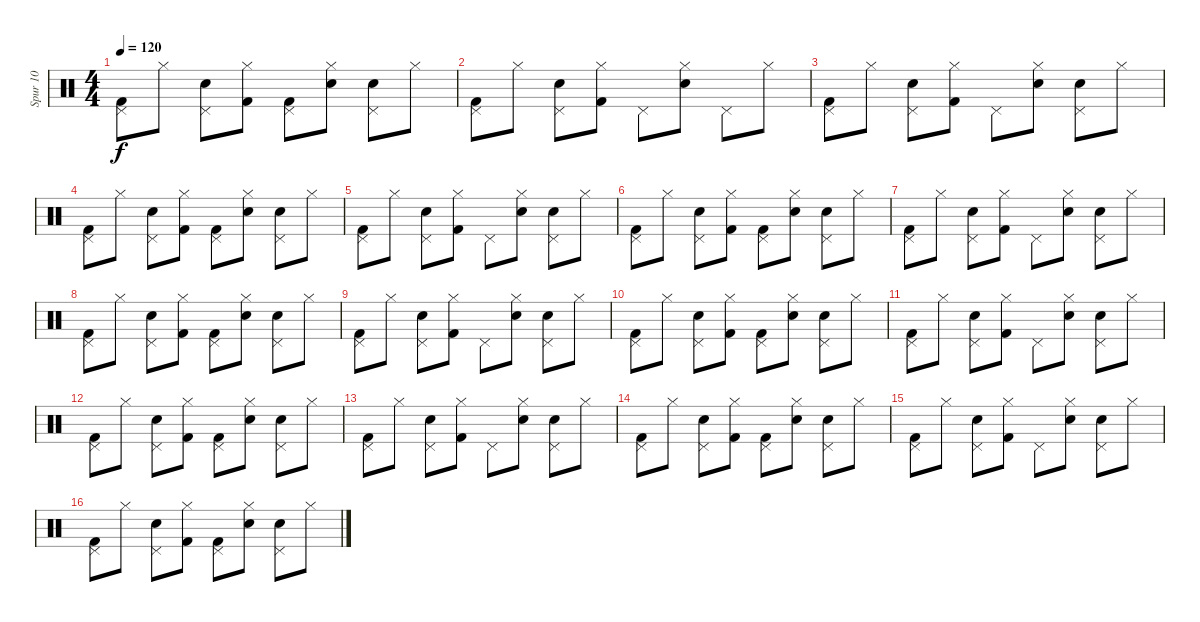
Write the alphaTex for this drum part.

\track ("Spur 10" "Spur 10") {instrument percussion}
\staff {score}
\articulation defaults
\ts (4 4)
\tempo 120
\clef neutral
\ks c
("Pedal Hi-Hat (hit)" "Kick (hit) 2").8{dy f} "Hi-Hat (closed)".8 ("Pedal Hi-Hat (hit)" "Snare (hit) 2").8 ("Hi-Hat (closed)" "Kick (hit) 2").8 ("Pedal Hi-Hat (hit)" "Kick (hit) 2").8 ("Hi-Hat (closed)" "Snare (hit) 2").8 ("Pedal Hi-Hat (hit)" "Snare (hit) 2").8 "Hi-Hat (closed)".8 |
("Pedal Hi-Hat (hit)" "Kick (hit) 2").8 "Hi-Hat (closed)".8 ("Pedal Hi-Hat (hit)" "Snare (hit) 2").8 ("Hi-Hat (closed)" "Kick (hit) 2").8 "Pedal Hi-Hat (hit)".8 ("Hi-Hat (closed)" "Snare (hit) 2").8 "Pedal Hi-Hat (hit)".8 "Hi-Hat (closed)".8 |
("Pedal Hi-Hat (hit)" "Kick (hit) 2").8 "Hi-Hat (closed)".8 ("Pedal Hi-Hat (hit)" "Snare (hit) 2").8 ("Hi-Hat (closed)" "Kick (hit) 2").8 "Pedal Hi-Hat (hit)".8 ("Hi-Hat (closed)" "Snare (hit) 2").8 ("Pedal Hi-Hat (hit)" "Snare (hit) 2").8 "Hi-Hat (closed)".8 |
("Pedal Hi-Hat (hit)" "Kick (hit) 2").8 "Hi-Hat (closed)".8 ("Pedal Hi-Hat (hit)" "Snare (hit) 2").8 ("Hi-Hat (closed)" "Kick (hit) 2").8 ("Pedal Hi-Hat (hit)" "Kick (hit) 2").8 ("Hi-Hat (closed)" "Snare (hit) 2").8 ("Pedal Hi-Hat (hit)" "Snare (hit) 2").8 "Hi-Hat (closed)".8 |
("Pedal Hi-Hat (hit)" "Kick (hit) 2").8 "Hi-Hat (closed)".8 ("Pedal Hi-Hat (hit)" "Snare (hit) 2").8 ("Hi-Hat (closed)" "Kick (hit) 2").8 "Pedal Hi-Hat (hit)".8 ("Hi-Hat (closed)" "Snare (hit) 2").8 ("Pedal Hi-Hat (hit)" "Snare (hit) 2").8 "Hi-Hat (closed)".8 |
("Pedal Hi-Hat (hit)" "Kick (hit) 2").8 "Hi-Hat (closed)".8 ("Pedal Hi-Hat (hit)" "Snare (hit) 2").8 ("Hi-Hat (closed)" "Kick (hit) 2").8 ("Pedal Hi-Hat (hit)" "Kick (hit) 2").8 ("Hi-Hat (closed)" "Snare (hit) 2").8 ("Pedal Hi-Hat (hit)" "Snare (hit) 2").8 "Hi-Hat (closed)".8 |
("Pedal Hi-Hat (hit)" "Kick (hit) 2").8 "Hi-Hat (closed)".8 ("Pedal Hi-Hat (hit)" "Snare (hit) 2").8 ("Hi-Hat (closed)" "Kick (hit) 2").8 "Pedal Hi-Hat (hit)".8 ("Hi-Hat (closed)" "Snare (hit) 2").8 ("Pedal Hi-Hat (hit)" "Snare (hit) 2").8 "Hi-Hat (closed)".8 |
("Pedal Hi-Hat (hit)" "Kick (hit) 2").8 "Hi-Hat (closed)".8 ("Pedal Hi-Hat (hit)" "Snare (hit) 2").8 ("Hi-Hat (closed)" "Kick (hit) 2").8 ("Pedal Hi-Hat (hit)" "Kick (hit) 2").8 ("Hi-Hat (closed)" "Snare (hit) 2").8 ("Pedal Hi-Hat (hit)" "Snare (hit) 2").8 "Hi-Hat (closed)".8 |
("Pedal Hi-Hat (hit)" "Kick (hit) 2").8 "Hi-Hat (closed)".8 ("Pedal Hi-Hat (hit)" "Snare (hit) 2").8 ("Hi-Hat (closed)" "Kick (hit) 2").8 "Pedal Hi-Hat (hit)".8 ("Hi-Hat (closed)" "Snare (hit) 2").8 ("Pedal Hi-Hat (hit)" "Snare (hit) 2").8 "Hi-Hat (closed)".8 |
("Pedal Hi-Hat (hit)" "Kick (hit) 2").8 "Hi-Hat (closed)".8 ("Pedal Hi-Hat (hit)" "Snare (hit) 2").8 ("Hi-Hat (closed)" "Kick (hit) 2").8 ("Pedal Hi-Hat (hit)" "Kick (hit) 2").8 ("Hi-Hat (closed)" "Snare (hit) 2").8 ("Pedal Hi-Hat (hit)" "Snare (hit) 2").8 "Hi-Hat (closed)".8 |
("Pedal Hi-Hat (hit)" "Kick (hit) 2").8 "Hi-Hat (closed)".8 ("Pedal Hi-Hat (hit)" "Snare (hit) 2").8 ("Hi-Hat (closed)" "Kick (hit) 2").8 "Pedal Hi-Hat (hit)".8 ("Hi-Hat (closed)" "Snare (hit) 2").8 ("Pedal Hi-Hat (hit)" "Snare (hit) 2").8 "Hi-Hat (closed)".8 |
("Pedal Hi-Hat (hit)" "Kick (hit) 2").8 "Hi-Hat (closed)".8 ("Pedal Hi-Hat (hit)" "Snare (hit) 2").8 ("Hi-Hat (closed)" "Kick (hit) 2").8 ("Pedal Hi-Hat (hit)" "Kick (hit) 2").8 ("Hi-Hat (closed)" "Snare (hit) 2").8 ("Pedal Hi-Hat (hit)" "Snare (hit) 2").8 "Hi-Hat (closed)".8 |
("Pedal Hi-Hat (hit)" "Kick (hit) 2").8 "Hi-Hat (closed)".8 ("Pedal Hi-Hat (hit)" "Snare (hit) 2").8 ("Hi-Hat (closed)" "Kick (hit) 2").8 "Pedal Hi-Hat (hit)".8 ("Hi-Hat (closed)" "Snare (hit) 2").8 ("Pedal Hi-Hat (hit)" "Snare (hit) 2").8 "Hi-Hat (closed)".8 |
("Pedal Hi-Hat (hit)" "Kick (hit) 2").8 "Hi-Hat (closed)".8 ("Pedal Hi-Hat (hit)" "Snare (hit) 2").8 ("Hi-Hat (closed)" "Kick (hit) 2").8 ("Pedal Hi-Hat (hit)" "Kick (hit) 2").8 ("Hi-Hat (closed)" "Snare (hit) 2").8 ("Pedal Hi-Hat (hit)" "Snare (hit) 2").8 "Hi-Hat (closed)".8 |
("Pedal Hi-Hat (hit)" "Kick (hit) 2").8 "Hi-Hat (closed)".8 ("Pedal Hi-Hat (hit)" "Snare (hit) 2").8 ("Hi-Hat (closed)" "Kick (hit) 2").8 "Pedal Hi-Hat (hit)".8 ("Hi-Hat (closed)" "Snare (hit) 2").8 ("Pedal Hi-Hat (hit)" "Snare (hit) 2").8 "Hi-Hat (closed)".8 |
("Pedal Hi-Hat (hit)" "Kick (hit) 2").8 "Hi-Hat (closed)".8 ("Pedal Hi-Hat (hit)" "Snare (hit) 2").8 ("Hi-Hat (closed)" "Kick (hit) 2").8 ("Pedal Hi-Hat (hit)" "Kick (hit) 2").8 ("Hi-Hat (closed)" "Snare (hit) 2").8 ("Pedal Hi-Hat (hit)" "Snare (hit) 2").8 "Hi-Hat (closed)".8
